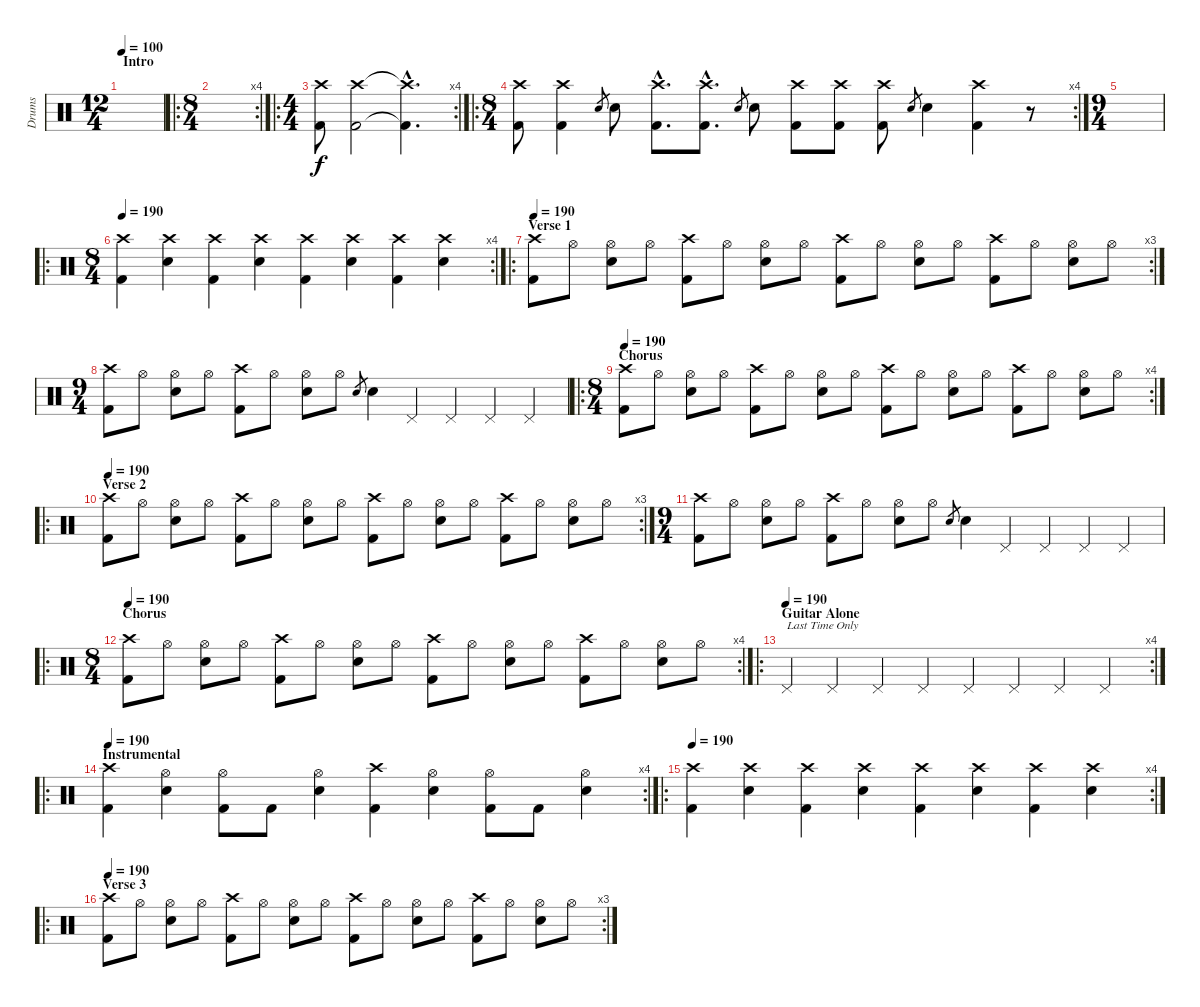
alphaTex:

\track ("Drums" "Drums") {instrument percussion}
\staff {score}
\articulation defaults
\ts (12 4)
\section ("" "Intro")
\tempo 100
\clef neutral
\ks c
|
\ro
\rc 4
\ts (8 4)
|
\ro
\rc 4
\ts (4 4)
("Crash high (hit)" "Kick (hit) 2").8 ("Crash high (hit)" "Kick (hit) 2").2 ("Crash high (hit)"{hac t} "Kick (hit) 2"{hac t}).4{d} |
\ro
\rc 4
\ts (8 4)
("Crash high (hit)" "Kick (hit) 2").8 ("Crash high (hit)" "Kick (hit) 2").4 "Electric Snare (hit)".8{gr} "Electric Snare (hit)".8 ("Crash high (hit)"{hac} "Kick (hit) 2"{hac}).8{d} ("Crash high (hit)"{hac} "Kick (hit) 2"{hac}).8{d} "Electric Snare (hit)".8{gr} "Electric Snare (hit)".8 ("Crash high (hit)" "Kick (hit) 2").8 ("Crash high (hit)" "Kick (hit) 2").8 ("Crash high (hit)" "Kick (hit) 2").8 "Electric Snare (hit)".8{gr} "Electric Snare (hit)".4 ("Crash high (hit)" "Kick (hit) 2").4 r.8 |
\ts (9 4)
|
\ro
\rc 4
\ts (8 4)
\tempo 190
("Crash high (hit)" "Kick (hit) 2").4 ("Crash high (hit)" "Electric Snare (hit)").4 ("Crash high (hit)" "Kick (hit) 2").4 ("Crash high (hit)" "Electric Snare (hit)").4 ("Crash high (hit)" "Kick (hit) 2").4 ("Crash high (hit)" "Electric Snare (hit)").4 ("Crash high (hit)" "Kick (hit) 2").4 ("Crash high (hit)" "Electric Snare (hit)").4 |
\ro
\rc 3
\section ("" "Verse 1")
\tempo 190
("Crash high (hit)" "Kick (hit) 2").8 "Hi-Hat (open)".8 ("Hi-Hat (open)" "Electric Snare (hit)").8 "Hi-Hat (open)".8 ("Crash high (hit)" "Kick (hit) 2").8 "Hi-Hat (open)".8 ("Hi-Hat (open)" "Electric Snare (hit)").8 "Hi-Hat (open)".8 ("Crash high (hit)" "Kick (hit) 2").8 "Hi-Hat (open)".8 ("Hi-Hat (open)" "Electric Snare (hit)").8 "Hi-Hat (open)".8 ("Crash high (hit)" "Kick (hit) 2").8 "Hi-Hat (open)".8 ("Hi-Hat (open)" "Electric Snare (hit)").8 "Hi-Hat (open)".8 |
\ts (9 4)
("Crash high (hit)" "Kick (hit) 2").8 "Hi-Hat (open)".8 ("Hi-Hat (open)" "Electric Snare (hit)").8 "Hi-Hat (open)".8 ("Crash high (hit)" "Kick (hit) 2").8 "Hi-Hat (open)".8 ("Hi-Hat (open)" "Electric Snare (hit)").8 "Hi-Hat (open)".8 "Electric Snare (hit)".8{gr} "Electric Snare (hit)".4 "Pedal Hi-Hat (hit)".4 "Pedal Hi-Hat (hit)".4 "Pedal Hi-Hat (hit)".4 "Pedal Hi-Hat (hit)".4 |
\ro
\rc 4
\ts (8 4)
\section ("" "Chorus")
\tempo 190
("Crash high (hit)" "Kick (hit) 2").8 "Hi-Hat (open)".8 ("Hi-Hat (open)" "Electric Snare (hit)").8 "Hi-Hat (open)".8 ("Crash high (hit)" "Kick (hit) 2").8 "Hi-Hat (open)".8 ("Hi-Hat (open)" "Electric Snare (hit)").8 "Hi-Hat (open)".8 ("Crash high (hit)" "Kick (hit) 2").8 "Hi-Hat (open)".8 ("Hi-Hat (open)" "Electric Snare (hit)").8 "Hi-Hat (open)".8 ("Crash high (hit)" "Kick (hit) 2").8 "Hi-Hat (open)".8 ("Hi-Hat (open)" "Electric Snare (hit)").8 "Hi-Hat (open)".8 |
\ro
\rc 3
\section ("" "Verse 2")
\tempo 190
("Crash high (hit)" "Kick (hit) 2").8 "Hi-Hat (open)".8 ("Hi-Hat (open)" "Electric Snare (hit)").8 "Hi-Hat (open)".8 ("Crash high (hit)" "Kick (hit) 2").8 "Hi-Hat (open)".8 ("Hi-Hat (open)" "Electric Snare (hit)").8 "Hi-Hat (open)".8 ("Crash high (hit)" "Kick (hit) 2").8 "Hi-Hat (open)".8 ("Hi-Hat (open)" "Electric Snare (hit)").8 "Hi-Hat (open)".8 ("Crash high (hit)" "Kick (hit) 2").8 "Hi-Hat (open)".8 ("Hi-Hat (open)" "Electric Snare (hit)").8 "Hi-Hat (open)".8 |
\ts (9 4)
("Crash high (hit)" "Kick (hit) 2").8 "Hi-Hat (open)".8 ("Hi-Hat (open)" "Electric Snare (hit)").8 "Hi-Hat (open)".8 ("Crash high (hit)" "Kick (hit) 2").8 "Hi-Hat (open)".8 ("Hi-Hat (open)" "Electric Snare (hit)").8 "Hi-Hat (open)".8 "Electric Snare (hit)".8{gr} "Electric Snare (hit)".4 "Pedal Hi-Hat (hit)".4 "Pedal Hi-Hat (hit)".4 "Pedal Hi-Hat (hit)".4 "Pedal Hi-Hat (hit)".4 |
\ro
\rc 4
\ts (8 4)
\section ("" "Chorus")
\tempo 190
("Crash high (hit)" "Kick (hit) 2").8 "Hi-Hat (open)".8 ("Hi-Hat (open)" "Electric Snare (hit)").8 "Hi-Hat (open)".8 ("Crash high (hit)" "Kick (hit) 2").8 "Hi-Hat (open)".8 ("Hi-Hat (open)" "Electric Snare (hit)").8 "Hi-Hat (open)".8 ("Crash high (hit)" "Kick (hit) 2").8 "Hi-Hat (open)".8 ("Hi-Hat (open)" "Electric Snare (hit)").8 "Hi-Hat (open)".8 ("Crash high (hit)" "Kick (hit) 2").8 "Hi-Hat (open)".8 ("Hi-Hat (open)" "Electric Snare (hit)").8 "Hi-Hat (open)".8 |
\ro
\rc 4
\section ("" "Guitar Alone")
\tempo (190)
"Pedal Hi-Hat (hit)".4{txt "Last Time Only"} "Pedal Hi-Hat (hit)".4 "Pedal Hi-Hat (hit)".4 "Pedal Hi-Hat (hit)".4 "Pedal Hi-Hat (hit)".4 "Pedal Hi-Hat (hit)".4 "Pedal Hi-Hat (hit)".4 "Pedal Hi-Hat (hit)".4 |
\ro
\rc 4
\section ("" "Instrumental")
\tempo 190
("Crash high (hit)" "Kick (hit) 2").4 ("Hi-Hat (open)" "Electric Snare (hit)").4 ("Hi-Hat (open)" "Kick (hit) 2").8 "Kick (hit) 2".8 ("Hi-Hat (open)" "Electric Snare (hit)").4 ("Crash high (hit)" "Kick (hit) 2").4 ("Hi-Hat (open)" "Electric Snare (hit)").4 ("Hi-Hat (open)" "Kick (hit) 2").8 "Kick (hit) 2".8 ("Hi-Hat (open)" "Electric Snare (hit)").4 |
\ro
\rc 4
\tempo 190
("Crash high (hit)" "Kick (hit) 2").4 ("Crash high (hit)" "Electric Snare (hit)").4 ("Crash high (hit)" "Kick (hit) 2").4 ("Crash high (hit)" "Electric Snare (hit)").4 ("Crash high (hit)" "Kick (hit) 2").4 ("Crash high (hit)" "Electric Snare (hit)").4 ("Crash high (hit)" "Kick (hit) 2").4 ("Crash high (hit)" "Electric Snare (hit)").4 |
\ro
\rc 3
\section ("" "Verse 3")
\tempo 190
("Crash high (hit)" "Kick (hit) 2").8 "Hi-Hat (open)".8 ("Hi-Hat (open)" "Electric Snare (hit)").8 "Hi-Hat (open)".8 ("Crash high (hit)" "Kick (hit) 2").8 "Hi-Hat (open)".8 ("Hi-Hat (open)" "Electric Snare (hit)").8 "Hi-Hat (open)".8 ("Crash high (hit)" "Kick (hit) 2").8 "Hi-Hat (open)".8 ("Hi-Hat (open)" "Electric Snare (hit)").8 "Hi-Hat (open)".8 ("Crash high (hit)" "Kick (hit) 2").8 "Hi-Hat (open)".8 ("Hi-Hat (open)" "Electric Snare (hit)").8 "Hi-Hat (open)".8
